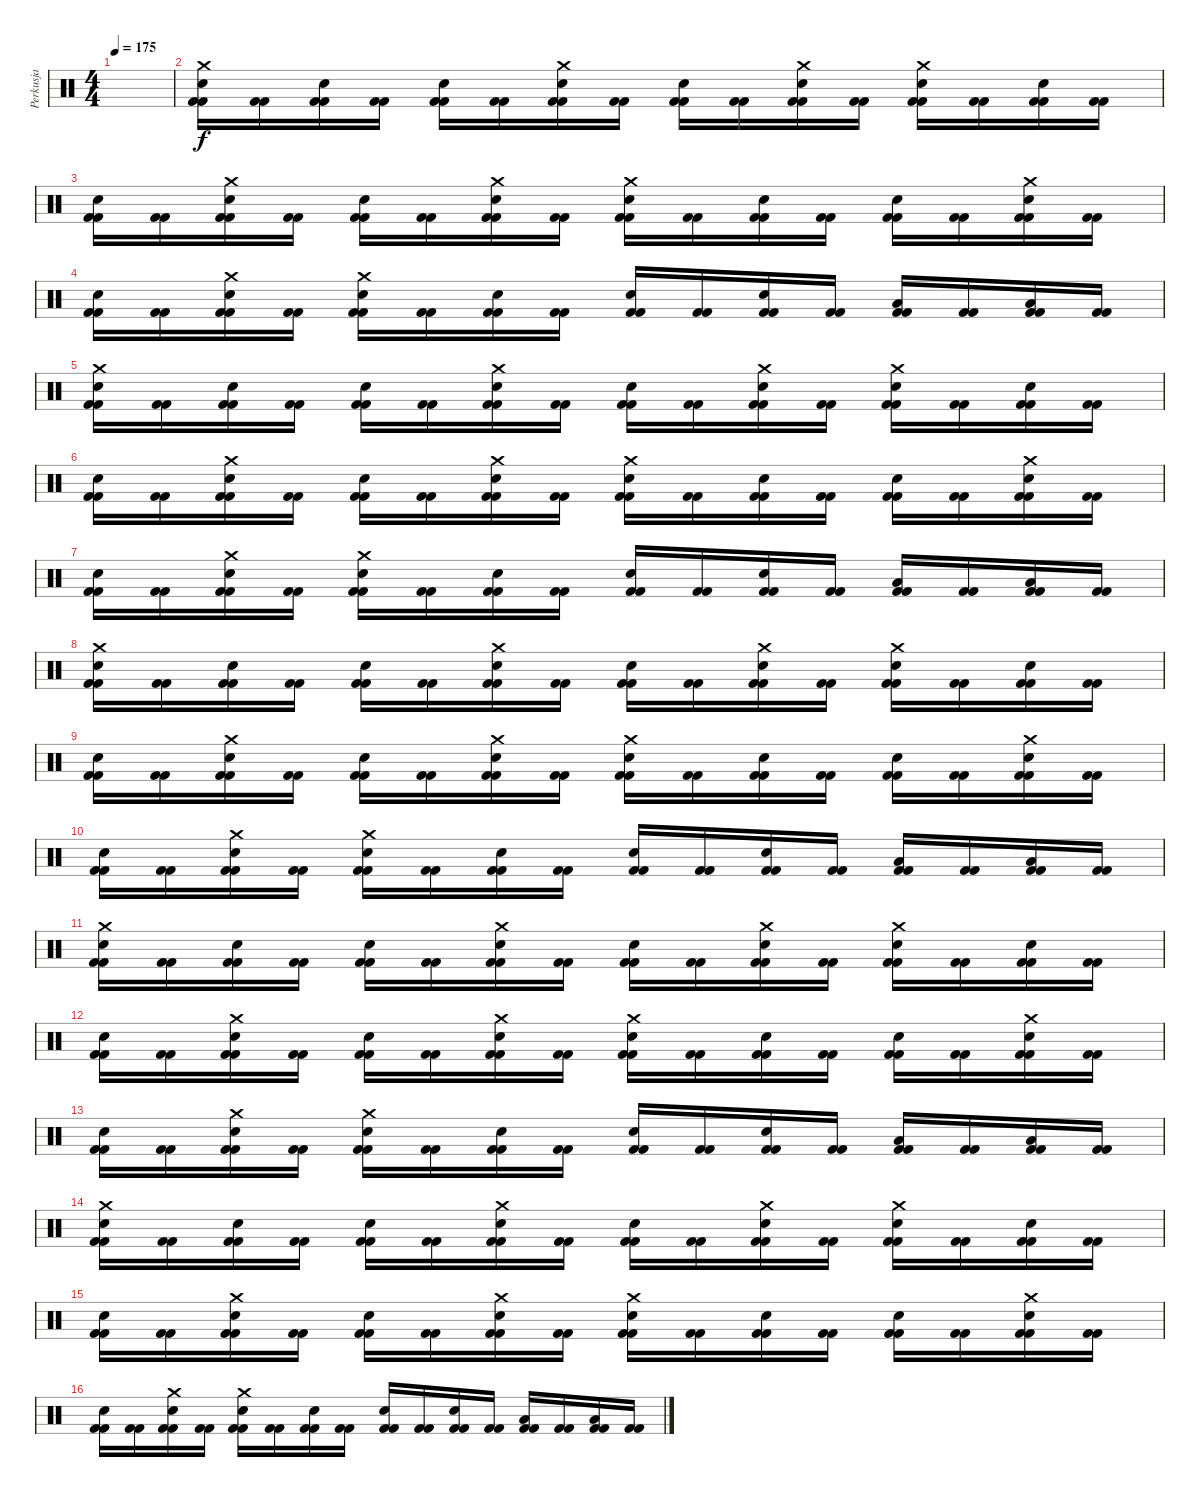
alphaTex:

\track ("Perkusja" "Perkusja") {instrument percussion}
\staff {score}
\articulation defaults
\ts (4 4)
\tempo 175
\clef neutral
\ks c
|
("Crash medium (hit)" "Snare (hit) 2" "Kick (hit) 2" "Kick (hit) 2").16 ("Kick (hit) 2" "Kick (hit) 2").16 ("Snare (hit) 2" "Kick (hit) 2" "Kick (hit) 2").16 ("Kick (hit) 2" "Kick (hit) 2").16 ("Snare (hit) 2" "Kick (hit) 2" "Kick (hit) 2").16 ("Kick (hit) 2" "Kick (hit) 2").16 ("Crash medium (hit)" "Snare (hit) 2" "Kick (hit) 2" "Kick (hit) 2").16 ("Kick (hit) 2" "Kick (hit) 2").16 ("Snare (hit) 2" "Kick (hit) 2" "Kick (hit) 2").16 ("Kick (hit) 2" "Kick (hit) 2").16 ("Crash medium (hit)" "Snare (hit) 2" "Kick (hit) 2" "Kick (hit) 2").16 ("Kick (hit) 2" "Kick (hit) 2").16 ("Crash medium (hit)" "Snare (hit) 2" "Kick (hit) 2" "Kick (hit) 2").16 ("Kick (hit) 2" "Kick (hit) 2").16 ("Snare (hit) 2" "Kick (hit) 2" "Kick (hit) 2").16 ("Kick (hit) 2" "Kick (hit) 2").16 |
("Snare (hit) 2" "Kick (hit) 2" "Kick (hit) 2").16 ("Kick (hit) 2" "Kick (hit) 2").16 ("Crash medium (hit)" "Snare (hit) 2" "Kick (hit) 2" "Kick (hit) 2").16 ("Kick (hit) 2" "Kick (hit) 2").16 ("Snare (hit) 2" "Kick (hit) 2" "Kick (hit) 2").16 ("Kick (hit) 2" "Kick (hit) 2").16 ("Crash medium (hit)" "Snare (hit) 2" "Kick (hit) 2" "Kick (hit) 2").16 ("Kick (hit) 2" "Kick (hit) 2").16 ("Crash medium (hit)" "Snare (hit) 2" "Kick (hit) 2" "Kick (hit) 2").16 ("Kick (hit) 2" "Kick (hit) 2").16 ("Snare (hit) 2" "Kick (hit) 2" "Kick (hit) 2").16 ("Kick (hit) 2" "Kick (hit) 2").16 ("Snare (hit) 2" "Kick (hit) 2" "Kick (hit) 2").16 ("Kick (hit) 2" "Kick (hit) 2").16 ("Crash medium (hit)" "Snare (hit) 2" "Kick (hit) 2" "Kick (hit) 2").16 ("Kick (hit) 2" "Kick (hit) 2").16 |
("Snare (hit) 2" "Kick (hit) 2" "Kick (hit) 2").16 ("Kick (hit) 2" "Kick (hit) 2").16 ("Crash medium (hit)" "Snare (hit) 2" "Kick (hit) 2" "Kick (hit) 2").16 ("Kick (hit) 2" "Kick (hit) 2").16 ("Crash medium (hit)" "Snare (hit) 2" "Kick (hit) 2" "Kick (hit) 2").16 ("Kick (hit) 2" "Kick (hit) 2").16 ("Snare (hit) 2" "Kick (hit) 2" "Kick (hit) 2").16 ("Kick (hit) 2" "Kick (hit) 2").16 ("Electric Snare (hit)" "Kick (hit) 2" "Kick (hit) 2").16 ("Kick (hit) 2" "Kick (hit) 2").16 ("Electric Snare (hit)" "Kick (hit) 2" "Kick (hit) 2").16 ("Kick (hit) 2" "Kick (hit) 2").16 ("Low Tom (hit)" "Kick (hit) 2" "Kick (hit) 2").16 ("Kick (hit) 2" "Kick (hit) 2").16 ("Low Tom (hit)" "Kick (hit) 2" "Kick (hit) 2").16 ("Kick (hit) 2" "Kick (hit) 2").16 |
("Crash medium (hit)" "Snare (hit) 2" "Kick (hit) 2" "Kick (hit) 2").16 ("Kick (hit) 2" "Kick (hit) 2").16 ("Snare (hit) 2" "Kick (hit) 2" "Kick (hit) 2").16 ("Kick (hit) 2" "Kick (hit) 2").16 ("Snare (hit) 2" "Kick (hit) 2" "Kick (hit) 2").16 ("Kick (hit) 2" "Kick (hit) 2").16 ("Crash medium (hit)" "Snare (hit) 2" "Kick (hit) 2" "Kick (hit) 2").16 ("Kick (hit) 2" "Kick (hit) 2").16 ("Snare (hit) 2" "Kick (hit) 2" "Kick (hit) 2").16 ("Kick (hit) 2" "Kick (hit) 2").16 ("Crash medium (hit)" "Snare (hit) 2" "Kick (hit) 2" "Kick (hit) 2").16 ("Kick (hit) 2" "Kick (hit) 2").16 ("Crash medium (hit)" "Snare (hit) 2" "Kick (hit) 2" "Kick (hit) 2").16 ("Kick (hit) 2" "Kick (hit) 2").16 ("Snare (hit) 2" "Kick (hit) 2" "Kick (hit) 2").16 ("Kick (hit) 2" "Kick (hit) 2").16 |
("Snare (hit) 2" "Kick (hit) 2" "Kick (hit) 2").16 ("Kick (hit) 2" "Kick (hit) 2").16 ("Crash medium (hit)" "Snare (hit) 2" "Kick (hit) 2" "Kick (hit) 2").16 ("Kick (hit) 2" "Kick (hit) 2").16 ("Snare (hit) 2" "Kick (hit) 2" "Kick (hit) 2").16 ("Kick (hit) 2" "Kick (hit) 2").16 ("Crash medium (hit)" "Snare (hit) 2" "Kick (hit) 2" "Kick (hit) 2").16 ("Kick (hit) 2" "Kick (hit) 2").16 ("Crash medium (hit)" "Snare (hit) 2" "Kick (hit) 2" "Kick (hit) 2").16 ("Kick (hit) 2" "Kick (hit) 2").16 ("Snare (hit) 2" "Kick (hit) 2" "Kick (hit) 2").16 ("Kick (hit) 2" "Kick (hit) 2").16 ("Snare (hit) 2" "Kick (hit) 2" "Kick (hit) 2").16 ("Kick (hit) 2" "Kick (hit) 2").16 ("Crash medium (hit)" "Snare (hit) 2" "Kick (hit) 2" "Kick (hit) 2").16 ("Kick (hit) 2" "Kick (hit) 2").16 |
("Snare (hit) 2" "Kick (hit) 2" "Kick (hit) 2").16 ("Kick (hit) 2" "Kick (hit) 2").16 ("Crash medium (hit)" "Snare (hit) 2" "Kick (hit) 2" "Kick (hit) 2").16 ("Kick (hit) 2" "Kick (hit) 2").16 ("Crash medium (hit)" "Snare (hit) 2" "Kick (hit) 2" "Kick (hit) 2").16 ("Kick (hit) 2" "Kick (hit) 2").16 ("Snare (hit) 2" "Kick (hit) 2" "Kick (hit) 2").16 ("Kick (hit) 2" "Kick (hit) 2").16 ("Electric Snare (hit)" "Kick (hit) 2" "Kick (hit) 2").16 ("Kick (hit) 2" "Kick (hit) 2").16 ("Electric Snare (hit)" "Kick (hit) 2" "Kick (hit) 2").16 ("Kick (hit) 2" "Kick (hit) 2").16 ("Low Tom (hit)" "Kick (hit) 2" "Kick (hit) 2").16 ("Kick (hit) 2" "Kick (hit) 2").16 ("Low Tom (hit)" "Kick (hit) 2" "Kick (hit) 2").16 ("Kick (hit) 2" "Kick (hit) 2").16 |
("Crash medium (hit)" "Snare (hit) 2" "Kick (hit) 2" "Kick (hit) 2").16 ("Kick (hit) 2" "Kick (hit) 2").16 ("Snare (hit) 2" "Kick (hit) 2" "Kick (hit) 2").16 ("Kick (hit) 2" "Kick (hit) 2").16 ("Snare (hit) 2" "Kick (hit) 2" "Kick (hit) 2").16 ("Kick (hit) 2" "Kick (hit) 2").16 ("Crash medium (hit)" "Snare (hit) 2" "Kick (hit) 2" "Kick (hit) 2").16 ("Kick (hit) 2" "Kick (hit) 2").16 ("Snare (hit) 2" "Kick (hit) 2" "Kick (hit) 2").16 ("Kick (hit) 2" "Kick (hit) 2").16 ("Crash medium (hit)" "Snare (hit) 2" "Kick (hit) 2" "Kick (hit) 2").16 ("Kick (hit) 2" "Kick (hit) 2").16 ("Crash medium (hit)" "Snare (hit) 2" "Kick (hit) 2" "Kick (hit) 2").16 ("Kick (hit) 2" "Kick (hit) 2").16 ("Snare (hit) 2" "Kick (hit) 2" "Kick (hit) 2").16 ("Kick (hit) 2" "Kick (hit) 2").16 |
("Snare (hit) 2" "Kick (hit) 2" "Kick (hit) 2").16 ("Kick (hit) 2" "Kick (hit) 2").16 ("Crash medium (hit)" "Snare (hit) 2" "Kick (hit) 2" "Kick (hit) 2").16 ("Kick (hit) 2" "Kick (hit) 2").16 ("Snare (hit) 2" "Kick (hit) 2" "Kick (hit) 2").16 ("Kick (hit) 2" "Kick (hit) 2").16 ("Crash medium (hit)" "Snare (hit) 2" "Kick (hit) 2" "Kick (hit) 2").16 ("Kick (hit) 2" "Kick (hit) 2").16 ("Crash medium (hit)" "Snare (hit) 2" "Kick (hit) 2" "Kick (hit) 2").16 ("Kick (hit) 2" "Kick (hit) 2").16 ("Snare (hit) 2" "Kick (hit) 2" "Kick (hit) 2").16 ("Kick (hit) 2" "Kick (hit) 2").16 ("Snare (hit) 2" "Kick (hit) 2" "Kick (hit) 2").16 ("Kick (hit) 2" "Kick (hit) 2").16 ("Crash medium (hit)" "Snare (hit) 2" "Kick (hit) 2" "Kick (hit) 2").16 ("Kick (hit) 2" "Kick (hit) 2").16 |
("Snare (hit) 2" "Kick (hit) 2" "Kick (hit) 2").16 ("Kick (hit) 2" "Kick (hit) 2").16 ("Crash medium (hit)" "Snare (hit) 2" "Kick (hit) 2" "Kick (hit) 2").16 ("Kick (hit) 2" "Kick (hit) 2").16 ("Crash medium (hit)" "Snare (hit) 2" "Kick (hit) 2" "Kick (hit) 2").16 ("Kick (hit) 2" "Kick (hit) 2").16 ("Snare (hit) 2" "Kick (hit) 2" "Kick (hit) 2").16 ("Kick (hit) 2" "Kick (hit) 2").16 ("Electric Snare (hit)" "Kick (hit) 2" "Kick (hit) 2").16 ("Kick (hit) 2" "Kick (hit) 2").16 ("Electric Snare (hit)" "Kick (hit) 2" "Kick (hit) 2").16 ("Kick (hit) 2" "Kick (hit) 2").16 ("Low Tom (hit)" "Kick (hit) 2" "Kick (hit) 2").16 ("Kick (hit) 2" "Kick (hit) 2").16 ("Low Tom (hit)" "Kick (hit) 2" "Kick (hit) 2").16 ("Kick (hit) 2" "Kick (hit) 2").16 |
("Crash medium (hit)" "Snare (hit) 2" "Kick (hit) 2" "Kick (hit) 2").16 ("Kick (hit) 2" "Kick (hit) 2").16 ("Snare (hit) 2" "Kick (hit) 2" "Kick (hit) 2").16 ("Kick (hit) 2" "Kick (hit) 2").16 ("Snare (hit) 2" "Kick (hit) 2" "Kick (hit) 2").16 ("Kick (hit) 2" "Kick (hit) 2").16 ("Crash medium (hit)" "Snare (hit) 2" "Kick (hit) 2" "Kick (hit) 2").16 ("Kick (hit) 2" "Kick (hit) 2").16 ("Snare (hit) 2" "Kick (hit) 2" "Kick (hit) 2").16 ("Kick (hit) 2" "Kick (hit) 2").16 ("Crash medium (hit)" "Snare (hit) 2" "Kick (hit) 2" "Kick (hit) 2").16 ("Kick (hit) 2" "Kick (hit) 2").16 ("Crash medium (hit)" "Snare (hit) 2" "Kick (hit) 2" "Kick (hit) 2").16 ("Kick (hit) 2" "Kick (hit) 2").16 ("Snare (hit) 2" "Kick (hit) 2" "Kick (hit) 2").16 ("Kick (hit) 2" "Kick (hit) 2").16 |
("Snare (hit) 2" "Kick (hit) 2" "Kick (hit) 2").16 ("Kick (hit) 2" "Kick (hit) 2").16 ("Crash medium (hit)" "Snare (hit) 2" "Kick (hit) 2" "Kick (hit) 2").16 ("Kick (hit) 2" "Kick (hit) 2").16 ("Snare (hit) 2" "Kick (hit) 2" "Kick (hit) 2").16 ("Kick (hit) 2" "Kick (hit) 2").16 ("Crash medium (hit)" "Snare (hit) 2" "Kick (hit) 2" "Kick (hit) 2").16 ("Kick (hit) 2" "Kick (hit) 2").16 ("Crash medium (hit)" "Snare (hit) 2" "Kick (hit) 2" "Kick (hit) 2").16 ("Kick (hit) 2" "Kick (hit) 2").16 ("Snare (hit) 2" "Kick (hit) 2" "Kick (hit) 2").16 ("Kick (hit) 2" "Kick (hit) 2").16 ("Snare (hit) 2" "Kick (hit) 2" "Kick (hit) 2").16 ("Kick (hit) 2" "Kick (hit) 2").16 ("Crash medium (hit)" "Snare (hit) 2" "Kick (hit) 2" "Kick (hit) 2").16 ("Kick (hit) 2" "Kick (hit) 2").16 |
("Snare (hit) 2" "Kick (hit) 2" "Kick (hit) 2").16 ("Kick (hit) 2" "Kick (hit) 2").16 ("Crash medium (hit)" "Snare (hit) 2" "Kick (hit) 2" "Kick (hit) 2").16 ("Kick (hit) 2" "Kick (hit) 2").16 ("Crash medium (hit)" "Snare (hit) 2" "Kick (hit) 2" "Kick (hit) 2").16 ("Kick (hit) 2" "Kick (hit) 2").16 ("Snare (hit) 2" "Kick (hit) 2" "Kick (hit) 2").16 ("Kick (hit) 2" "Kick (hit) 2").16 ("Electric Snare (hit)" "Kick (hit) 2" "Kick (hit) 2").16 ("Kick (hit) 2" "Kick (hit) 2").16 ("Electric Snare (hit)" "Kick (hit) 2" "Kick (hit) 2").16 ("Kick (hit) 2" "Kick (hit) 2").16 ("Low Tom (hit)" "Kick (hit) 2" "Kick (hit) 2").16 ("Kick (hit) 2" "Kick (hit) 2").16 ("Low Tom (hit)" "Kick (hit) 2" "Kick (hit) 2").16 ("Kick (hit) 2" "Kick (hit) 2").16 |
("Crash medium (hit)" "Snare (hit) 2" "Kick (hit) 2" "Kick (hit) 2").16 ("Kick (hit) 2" "Kick (hit) 2").16 ("Snare (hit) 2" "Kick (hit) 2" "Kick (hit) 2").16 ("Kick (hit) 2" "Kick (hit) 2").16 ("Snare (hit) 2" "Kick (hit) 2" "Kick (hit) 2").16 ("Kick (hit) 2" "Kick (hit) 2").16 ("Crash medium (hit)" "Snare (hit) 2" "Kick (hit) 2" "Kick (hit) 2").16 ("Kick (hit) 2" "Kick (hit) 2").16 ("Snare (hit) 2" "Kick (hit) 2" "Kick (hit) 2").16 ("Kick (hit) 2" "Kick (hit) 2").16 ("Crash medium (hit)" "Snare (hit) 2" "Kick (hit) 2" "Kick (hit) 2").16 ("Kick (hit) 2" "Kick (hit) 2").16 ("Crash medium (hit)" "Snare (hit) 2" "Kick (hit) 2" "Kick (hit) 2").16 ("Kick (hit) 2" "Kick (hit) 2").16 ("Snare (hit) 2" "Kick (hit) 2" "Kick (hit) 2").16 ("Kick (hit) 2" "Kick (hit) 2").16 |
("Snare (hit) 2" "Kick (hit) 2" "Kick (hit) 2").16 ("Kick (hit) 2" "Kick (hit) 2").16 ("Crash medium (hit)" "Snare (hit) 2" "Kick (hit) 2" "Kick (hit) 2").16 ("Kick (hit) 2" "Kick (hit) 2").16 ("Snare (hit) 2" "Kick (hit) 2" "Kick (hit) 2").16 ("Kick (hit) 2" "Kick (hit) 2").16 ("Crash medium (hit)" "Snare (hit) 2" "Kick (hit) 2" "Kick (hit) 2").16 ("Kick (hit) 2" "Kick (hit) 2").16 ("Crash medium (hit)" "Snare (hit) 2" "Kick (hit) 2" "Kick (hit) 2").16 ("Kick (hit) 2" "Kick (hit) 2").16 ("Snare (hit) 2" "Kick (hit) 2" "Kick (hit) 2").16 ("Kick (hit) 2" "Kick (hit) 2").16 ("Snare (hit) 2" "Kick (hit) 2" "Kick (hit) 2").16 ("Kick (hit) 2" "Kick (hit) 2").16 ("Crash medium (hit)" "Snare (hit) 2" "Kick (hit) 2" "Kick (hit) 2").16 ("Kick (hit) 2" "Kick (hit) 2").16 |
("Snare (hit) 2" "Kick (hit) 2" "Kick (hit) 2").16 ("Kick (hit) 2" "Kick (hit) 2").16 ("Crash medium (hit)" "Snare (hit) 2" "Kick (hit) 2" "Kick (hit) 2").16 ("Kick (hit) 2" "Kick (hit) 2").16 ("Crash medium (hit)" "Snare (hit) 2" "Kick (hit) 2" "Kick (hit) 2").16 ("Kick (hit) 2" "Kick (hit) 2").16 ("Snare (hit) 2" "Kick (hit) 2" "Kick (hit) 2").16 ("Kick (hit) 2" "Kick (hit) 2").16 ("Electric Snare (hit)" "Kick (hit) 2" "Kick (hit) 2").16 ("Kick (hit) 2" "Kick (hit) 2").16 ("Electric Snare (hit)" "Kick (hit) 2" "Kick (hit) 2").16 ("Kick (hit) 2" "Kick (hit) 2").16 ("Low Tom (hit)" "Kick (hit) 2" "Kick (hit) 2").16 ("Kick (hit) 2" "Kick (hit) 2").16 ("Low Tom (hit)" "Kick (hit) 2" "Kick (hit) 2").16 ("Kick (hit) 2" "Kick (hit) 2").16
